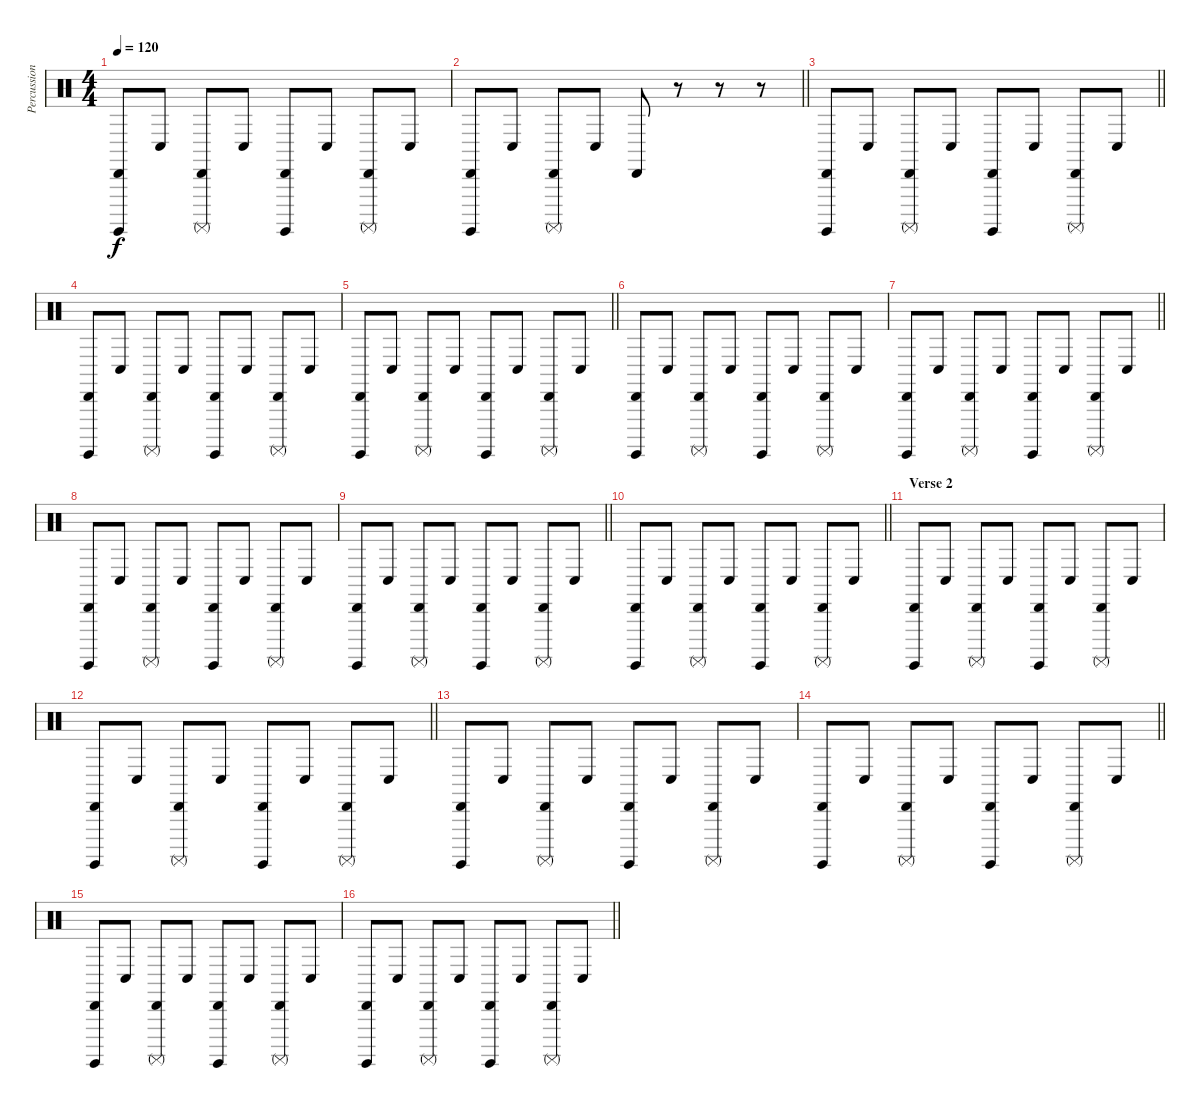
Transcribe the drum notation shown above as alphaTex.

\track ("Percussion" "Percussion") {instrument percussion}
\staff {score}
\articulation defaults
\ts (4 4)
\tempo 120
\clef neutral
\ks c
("Surdo (hit)" "Cabasa (hit)").8{dy f} "Conga low (hit)".8 ("Surdo (mute)" "Cabasa (hit)").8 "Conga low (hit)".8 ("Surdo (hit)" "Cabasa (hit)").8 "Conga low (hit)".8 ("Surdo (mute)" "Cabasa (hit)").8 "Conga low (hit)".8 |
\barLineRight lightlight
("Surdo (hit)" "Cabasa (hit)").8 "Conga low (hit)".8 ("Surdo (mute)" "Cabasa (hit)").8 "Conga low (hit)".8 "Cabasa (hit)".8 r.8 r.8 r.8 |
\barLineRight lightlight
("Surdo (hit)" "Cabasa (hit)").8 "Conga low (hit)".8 ("Surdo (mute)" "Cabasa (hit)").8 "Conga low (hit)".8 ("Surdo (hit)" "Cabasa (hit)").8 "Conga low (hit)".8 ("Surdo (mute)" "Cabasa (hit)").8 "Conga low (hit)".8 |
("Surdo (hit)" "Cabasa (hit)").8 "Conga low (hit)".8 ("Surdo (mute)" "Cabasa (hit)").8 "Conga low (hit)".8 ("Surdo (hit)" "Cabasa (hit)").8 "Conga low (hit)".8 ("Surdo (mute)" "Cabasa (hit)").8 "Conga low (hit)".8 |
\barLineRight lightlight
("Surdo (hit)" "Cabasa (hit)").8 "Conga low (hit)".8 ("Surdo (mute)" "Cabasa (hit)").8 "Conga low (hit)".8 ("Surdo (hit)" "Cabasa (hit)").8 "Conga low (hit)".8 ("Surdo (mute)" "Cabasa (hit)").8 "Conga low (hit)".8 |
("Surdo (hit)" "Cabasa (hit)").8 "Conga low (hit)".8 ("Surdo (mute)" "Cabasa (hit)").8 "Conga low (hit)".8 ("Surdo (hit)" "Cabasa (hit)").8 "Conga low (hit)".8 ("Surdo (mute)" "Cabasa (hit)").8 "Conga low (hit)".8 |
\barLineRight lightlight
("Surdo (hit)" "Cabasa (hit)").8 "Conga low (hit)".8 ("Surdo (mute)" "Cabasa (hit)").8 "Conga low (hit)".8 ("Surdo (hit)" "Cabasa (hit)").8 "Conga low (hit)".8 ("Surdo (mute)" "Cabasa (hit)").8 "Conga low (hit)".8 |
("Surdo (hit)" "Cabasa (hit)").8 "Conga low (hit)".8 ("Surdo (mute)" "Cabasa (hit)").8 "Conga low (hit)".8 ("Surdo (hit)" "Cabasa (hit)").8 "Conga low (hit)".8 ("Surdo (mute)" "Cabasa (hit)").8 "Conga low (hit)".8 |
\barLineRight lightlight
("Surdo (hit)" "Cabasa (hit)").8 "Conga low (hit)".8 ("Surdo (mute)" "Cabasa (hit)").8 "Conga low (hit)".8 ("Surdo (hit)" "Cabasa (hit)").8 "Conga low (hit)".8 ("Surdo (mute)" "Cabasa (hit)").8 "Conga low (hit)".8 |
\barLineRight lightlight
("Surdo (hit)" "Cabasa (hit)").8 "Conga low (hit)".8 ("Surdo (mute)" "Cabasa (hit)").8 "Conga low (hit)".8 ("Surdo (hit)" "Cabasa (hit)").8 "Conga low (hit)".8 ("Surdo (mute)" "Cabasa (hit)").8 "Conga low (hit)".8 |
\section ("" "Verse 2")
("Surdo (hit)" "Cabasa (hit)").8 "Conga low (hit)".8 ("Surdo (mute)" "Cabasa (hit)").8 "Conga low (hit)".8 ("Surdo (hit)" "Cabasa (hit)").8 "Conga low (hit)".8 ("Surdo (mute)" "Cabasa (hit)").8 "Conga low (hit)".8 |
\barLineRight lightlight
("Surdo (hit)" "Cabasa (hit)").8 "Conga low (hit)".8 ("Surdo (mute)" "Cabasa (hit)").8 "Conga low (hit)".8 ("Surdo (hit)" "Cabasa (hit)").8 "Conga low (hit)".8 ("Surdo (mute)" "Cabasa (hit)").8 "Conga low (hit)".8 |
("Surdo (hit)" "Cabasa (hit)").8 "Conga low (hit)".8 ("Surdo (mute)" "Cabasa (hit)").8 "Conga low (hit)".8 ("Surdo (hit)" "Cabasa (hit)").8 "Conga low (hit)".8 ("Surdo (mute)" "Cabasa (hit)").8 "Conga low (hit)".8 |
\barLineRight lightlight
("Surdo (hit)" "Cabasa (hit)").8 "Conga low (hit)".8 ("Surdo (mute)" "Cabasa (hit)").8 "Conga low (hit)".8 ("Surdo (hit)" "Cabasa (hit)").8 "Conga low (hit)".8 ("Surdo (mute)" "Cabasa (hit)").8 "Conga low (hit)".8 |
("Surdo (hit)" "Cabasa (hit)").8 "Conga low (hit)".8 ("Surdo (mute)" "Cabasa (hit)").8 "Conga low (hit)".8 ("Surdo (hit)" "Cabasa (hit)").8 "Conga low (hit)".8 ("Surdo (mute)" "Cabasa (hit)").8 "Conga low (hit)".8 |
\barLineRight lightlight
("Surdo (hit)" "Cabasa (hit)").8 "Conga low (hit)".8 ("Surdo (mute)" "Cabasa (hit)").8 "Conga low (hit)".8 ("Surdo (hit)" "Cabasa (hit)").8 "Conga low (hit)".8 ("Surdo (mute)" "Cabasa (hit)").8 "Conga low (hit)".8
